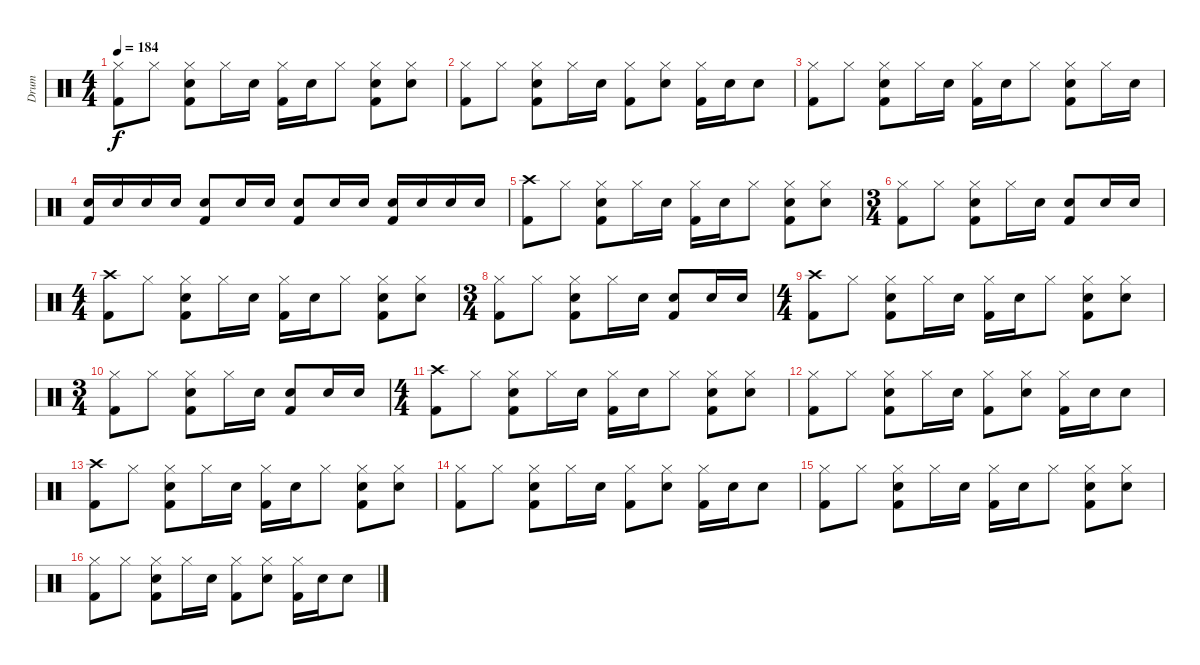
\track ("Drum" "Drum") {instrument percussion}
\staff {score}
\articulation defaults
\ts (4 4)
\tempo 184
\clef neutral
\ks c
("Hi-Hat (closed)" "Kick (hit) 2").8{dy f} "Hi-Hat (closed)".8 ("Hi-Hat (closed)" "Electric Snare (hit)" "Kick (hit) 2").8 "Hi-Hat (closed)".16 "Electric Snare (hit)".16 ("Hi-Hat (closed)" "Kick (hit) 2").16 "Electric Snare (hit)".16 "Hi-Hat (closed)".8 ("Hi-Hat (closed)" "Electric Snare (hit)" "Kick (hit) 2").8 ("Hi-Hat (closed)" "Electric Snare (hit)").8 |
("Hi-Hat (closed)" "Kick (hit) 2").8 "Hi-Hat (closed)".8 ("Hi-Hat (closed)" "Electric Snare (hit)" "Kick (hit) 2").8 "Hi-Hat (closed)".16 "Electric Snare (hit)".16 ("Hi-Hat (closed)" "Kick (hit) 2").8 ("Hi-Hat (closed)" "Electric Snare (hit)").8 ("Hi-Hat (closed)" "Kick (hit) 2").16 "Electric Snare (hit)".16 "Electric Snare (hit)".8 |
("Hi-Hat (closed)" "Kick (hit) 2").8 "Hi-Hat (closed)".8 ("Hi-Hat (closed)" "Electric Snare (hit)" "Kick (hit) 2").8 "Hi-Hat (closed)".16 "Electric Snare (hit)".16 ("Hi-Hat (closed)" "Kick (hit) 2").16 "Electric Snare (hit)".16 "Hi-Hat (closed)".8 ("Hi-Hat (closed)" "Electric Snare (hit)" "Kick (hit) 2").8 "Hi-Hat (closed)".16 "Electric Snare (hit)".16 |
("Electric Snare (hit)" "Kick (hit) 2").16 "Electric Snare (hit)".16 "Electric Snare (hit)".16 "Electric Snare (hit)".16 ("Electric Snare (hit)" "Kick (hit) 2").8 "Electric Snare (hit)".16 "Electric Snare (hit)".16 ("Electric Snare (hit)" "Kick (hit) 2").8 "Electric Snare (hit)".16 "Electric Snare (hit)".16 ("Electric Snare (hit)" "Kick (hit) 2").16 "Electric Snare (hit)".16 "Electric Snare (hit)".16 "Electric Snare (hit)".16 |
("Crash high (hit)" "Kick (hit) 2").8 "Hi-Hat (closed)".8 ("Hi-Hat (closed)" "Electric Snare (hit)" "Kick (hit) 2").8 "Hi-Hat (closed)".16 "Electric Snare (hit)".16 ("Hi-Hat (closed)" "Kick (hit) 2").16 "Electric Snare (hit)".16 "Hi-Hat (closed)".8 ("Hi-Hat (closed)" "Electric Snare (hit)" "Kick (hit) 2").8 ("Hi-Hat (closed)" "Electric Snare (hit)").8 |
\ts (3 4)
("Hi-Hat (closed)" "Kick (hit) 2").8 "Hi-Hat (closed)".8 ("Hi-Hat (closed)" "Electric Snare (hit)" "Kick (hit) 2").8 "Hi-Hat (closed)".16 "Electric Snare (hit)".16 ("Electric Snare (hit)" "Kick (hit) 2").8 "Electric Snare (hit)".16 "Electric Snare (hit)".16 |
\ts (4 4)
("Crash high (hit)" "Kick (hit) 2").8 "Hi-Hat (closed)".8 ("Hi-Hat (closed)" "Electric Snare (hit)" "Kick (hit) 2").8 "Hi-Hat (closed)".16 "Electric Snare (hit)".16 ("Hi-Hat (closed)" "Kick (hit) 2").16 "Electric Snare (hit)".16 "Hi-Hat (closed)".8 ("Hi-Hat (closed)" "Electric Snare (hit)" "Kick (hit) 2").8 ("Hi-Hat (closed)" "Electric Snare (hit)").8 |
\ts (3 4)
("Hi-Hat (closed)" "Kick (hit) 2").8 "Hi-Hat (closed)".8 ("Hi-Hat (closed)" "Electric Snare (hit)" "Kick (hit) 2").8 "Hi-Hat (closed)".16 "Electric Snare (hit)".16 ("Electric Snare (hit)" "Kick (hit) 2").8 "Electric Snare (hit)".16 "Electric Snare (hit)".16 |
\ts (4 4)
("Crash high (hit)" "Kick (hit) 2").8 "Hi-Hat (closed)".8 ("Hi-Hat (closed)" "Electric Snare (hit)" "Kick (hit) 2").8 "Hi-Hat (closed)".16 "Electric Snare (hit)".16 ("Hi-Hat (closed)" "Kick (hit) 2").16 "Electric Snare (hit)".16 "Hi-Hat (closed)".8 ("Hi-Hat (closed)" "Electric Snare (hit)" "Kick (hit) 2").8 ("Hi-Hat (closed)" "Electric Snare (hit)").8 |
\ts (3 4)
("Hi-Hat (closed)" "Kick (hit) 2").8 "Hi-Hat (closed)".8 ("Hi-Hat (closed)" "Electric Snare (hit)" "Kick (hit) 2").8 "Hi-Hat (closed)".16 "Electric Snare (hit)".16 ("Electric Snare (hit)" "Kick (hit) 2").8 "Electric Snare (hit)".16 "Electric Snare (hit)".16 |
\ts (4 4)
("Crash high (hit)" "Kick (hit) 2").8 "Hi-Hat (closed)".8 ("Hi-Hat (closed)" "Electric Snare (hit)" "Kick (hit) 2").8 "Hi-Hat (closed)".16 "Electric Snare (hit)".16 ("Hi-Hat (closed)" "Kick (hit) 2").16 "Electric Snare (hit)".16 "Hi-Hat (closed)".8 ("Hi-Hat (closed)" "Electric Snare (hit)" "Kick (hit) 2").8 ("Hi-Hat (closed)" "Electric Snare (hit)").8 |
("Hi-Hat (closed)" "Kick (hit) 2").8 "Hi-Hat (closed)".8 ("Hi-Hat (closed)" "Electric Snare (hit)" "Kick (hit) 2").8 "Hi-Hat (closed)".16 "Electric Snare (hit)".16 ("Hi-Hat (closed)" "Kick (hit) 2").8 ("Hi-Hat (closed)" "Electric Snare (hit)").8 ("Hi-Hat (closed)" "Kick (hit) 2").16 "Electric Snare (hit)".16 "Electric Snare (hit)".8 |
("Crash high (hit)" "Kick (hit) 2").8 "Hi-Hat (closed)".8 ("Hi-Hat (closed)" "Electric Snare (hit)" "Kick (hit) 2").8 "Hi-Hat (closed)".16 "Electric Snare (hit)".16 ("Hi-Hat (closed)" "Kick (hit) 2").16 "Electric Snare (hit)".16 "Hi-Hat (closed)".8 ("Hi-Hat (closed)" "Electric Snare (hit)" "Kick (hit) 2").8 ("Hi-Hat (closed)" "Electric Snare (hit)").8 |
("Hi-Hat (closed)" "Kick (hit) 2").8 "Hi-Hat (closed)".8 ("Hi-Hat (closed)" "Electric Snare (hit)" "Kick (hit) 2").8 "Hi-Hat (closed)".16 "Electric Snare (hit)".16 ("Hi-Hat (closed)" "Kick (hit) 2").8 ("Hi-Hat (closed)" "Electric Snare (hit)").8 ("Hi-Hat (closed)" "Kick (hit) 2").16 "Electric Snare (hit)".16 "Electric Snare (hit)".8 |
("Hi-Hat (closed)" "Kick (hit) 2").8 "Hi-Hat (closed)".8 ("Hi-Hat (closed)" "Electric Snare (hit)" "Kick (hit) 2").8 "Hi-Hat (closed)".16 "Electric Snare (hit)".16 ("Hi-Hat (closed)" "Kick (hit) 2").16 "Electric Snare (hit)".16 "Hi-Hat (closed)".8 ("Hi-Hat (closed)" "Electric Snare (hit)" "Kick (hit) 2").8 ("Hi-Hat (closed)" "Electric Snare (hit)").8 |
("Hi-Hat (closed)" "Kick (hit) 2").8 "Hi-Hat (closed)".8 ("Hi-Hat (closed)" "Electric Snare (hit)" "Kick (hit) 2").8 "Hi-Hat (closed)".16 "Electric Snare (hit)".16 ("Hi-Hat (closed)" "Kick (hit) 2").8 ("Hi-Hat (closed)" "Electric Snare (hit)").8 ("Hi-Hat (closed)" "Kick (hit) 2").16 "Electric Snare (hit)".16 "Electric Snare (hit)".8
